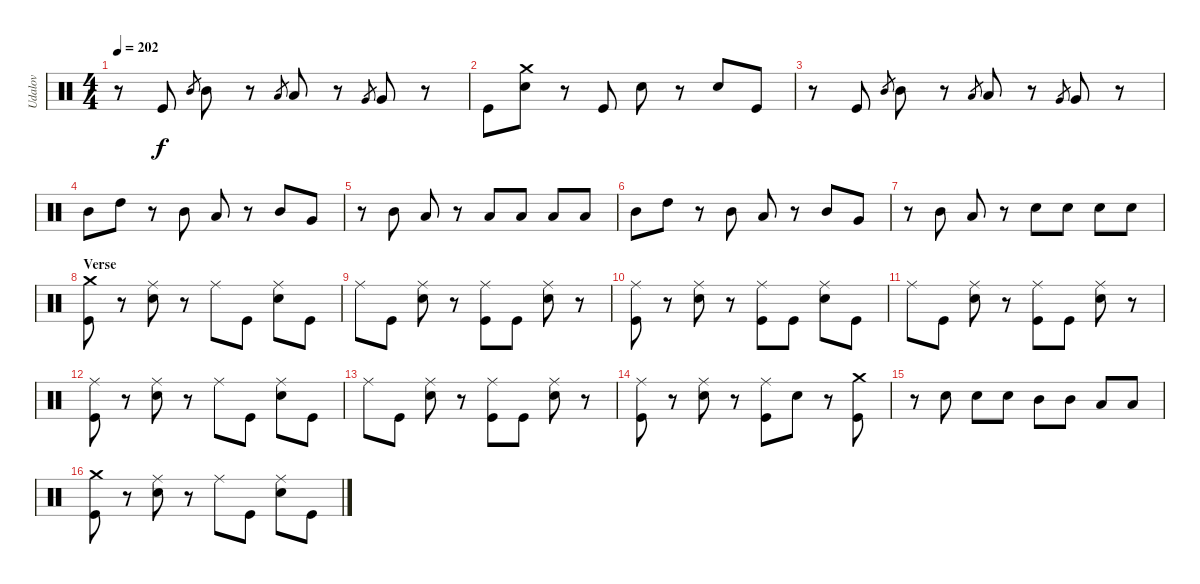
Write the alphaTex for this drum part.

\track ("Udalov" "Udalov") {instrument percussion}
\staff {score}
\articulation defaults
\ts (4 4)
\tempo 202
\clef neutral
\ks c
r.8{dy f} "Kick (hit)".8 "Mid Tom (hit)".8{gr} "Mid Tom (hit)".8 r.8 "Low Tom (hit)".8{gr} "Low Tom (hit)".8 r.8 "Very Low Tom (hit)".8{gr} "Very Low Tom (hit)".8 r.8 |
"Kick (hit)".8 ("Electric Snare (hit)" "Crash medium (hit)").8 r.8 "Kick (hit)".8 "Electric Snare (hit)".8 r.8 "Electric Snare (hit)".8 "Kick (hit)".8 |
r.8 "Kick (hit)".8 "Mid Tom (hit)".8{gr} "Mid Tom (hit)".8 r.8 "Low Tom (hit)".8{gr} "Low Tom (hit)".8 r.8 "Very Low Tom (hit)".8{gr} "Very Low Tom (hit)".8 r.8 |
"Mid Tom (hit)".8 "High Tom (hit)".8 r.8 "Mid Tom (hit)".8 "Low Tom (hit)".8 r.8 "Mid Tom (hit)".8 "Very Low Tom (hit)".8 |
r.8 "Mid Tom (hit)".8 "Low Tom (hit)".8 r.8 "Low Tom (hit)".8 "Low Tom (hit)".8 "Low Tom (hit)".8 "Low Tom (hit)".8 |
"Mid Tom (hit)".8 "High Tom (hit)".8 r.8 "Mid Tom (hit)".8 "Low Tom (hit)".8 r.8 "Mid Tom (hit)".8 "Very Low Tom (hit)".8 |
r.8 "Mid Tom (hit)".8 "Low Tom (hit)".8 r.8 "Electric Snare (hit)".8 "Electric Snare (hit)".8 "Electric Snare (hit)".8 "Electric Snare (hit)".8 |
\section ("" "Verse")
("Kick (hit)" "Crash medium (hit)").8 r.8 ("Electric Snare (hit)" "Ride (middle)").8 r.8 "Ride (middle)".8 "Kick (hit)".8 ("Electric Snare (hit)" "Ride (middle)").8 "Kick (hit)".8 |
"Ride (middle)".8 "Kick (hit)".8 ("Electric Snare (hit)" "Ride (middle)").8 r.8 ("Kick (hit)" "Ride (middle)").8 "Kick (hit)".8 ("Electric Snare (hit)" "Ride (middle)").8 r.8 |
("Kick (hit)" "Ride (middle)").8 r.8 ("Electric Snare (hit)" "Ride (middle)").8 r.8 ("Kick (hit)" "Ride (middle)").8 "Kick (hit)".8 ("Electric Snare (hit)" "Ride (middle)").8 "Kick (hit)".8 |
"Ride (middle)".8 "Kick (hit)".8 ("Electric Snare (hit)" "Ride (middle)").8 r.8 ("Kick (hit)" "Ride (middle)").8 "Kick (hit)".8 ("Electric Snare (hit)" "Ride (middle)").8 r.8 |
("Kick (hit)" "Ride (middle)").8 r.8 ("Electric Snare (hit)" "Ride (middle)").8 r.8 "Ride (middle)".8 "Kick (hit)".8 ("Electric Snare (hit)" "Ride (middle)").8 "Kick (hit)".8 |
"Ride (middle)".8 "Kick (hit)".8 ("Electric Snare (hit)" "Ride (middle)").8 r.8 ("Kick (hit)" "Ride (middle)").8 "Kick (hit)".8 ("Electric Snare (hit)" "Ride (middle)").8 r.8 |
("Kick (hit)" "Ride (middle)").8 r.8 ("Electric Snare (hit)" "Ride (middle)").8 r.8 ("Kick (hit)" "Ride (middle)").8 "Electric Snare (hit)".8 r.8 ("Kick (hit)" "Crash medium (hit)").8 |
r.8 "Electric Snare (hit)".8 "Electric Snare (hit)".8 "Electric Snare (hit)".8 "Mid Tom (hit)".8 "Mid Tom (hit)".8 "Low Tom (hit)".8 "Low Tom (hit)".8 |
("Kick (hit)" "Crash medium (hit)").8 r.8 ("Electric Snare (hit)" "Ride (middle)").8 r.8 "Ride (middle)".8 "Kick (hit)".8 ("Electric Snare (hit)" "Ride (middle)").8 "Kick (hit)".8
